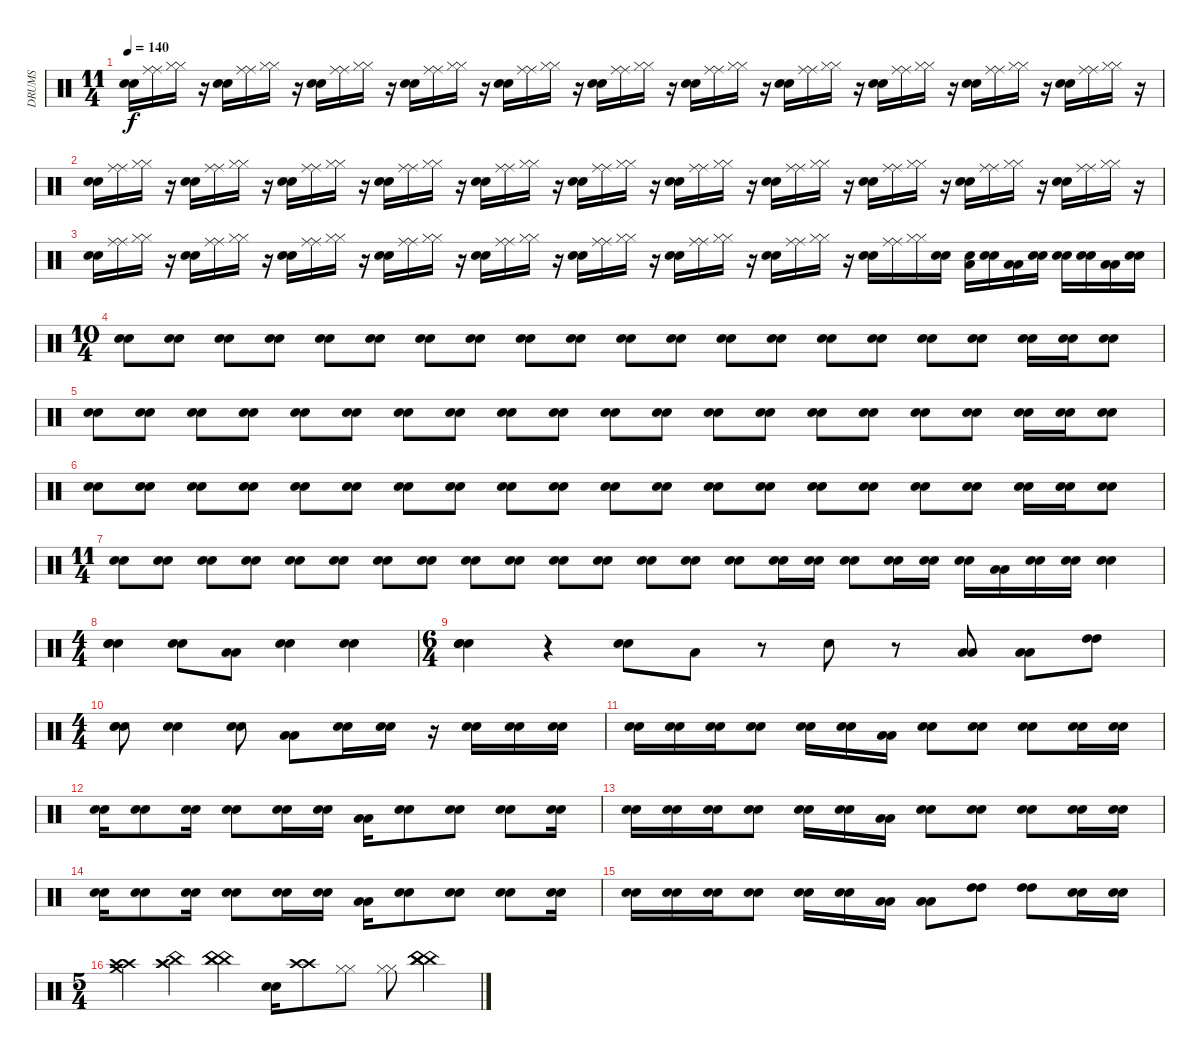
\track ("DRUMS" "DRUMS") {instrument percussion}
\staff {score}
\articulation defaults
\ts (11 4)
\tempo 140
\clef neutral
\ks c
("Electric Snare (hit)" "Electric Snare (hit)").16{dy f} ("Ride (middle)" "Ride (middle)").16 ("Hi-Hat (closed)" "Hi-Hat (closed)").16 r.16 ("Electric Snare (hit)" "Electric Snare (hit)").16 ("Ride (middle)" "Ride (middle)").16 ("Hi-Hat (closed)" "Hi-Hat (closed)").16 r.16 ("Electric Snare (hit)" "Electric Snare (hit)").16 ("Ride (middle)" "Ride (middle)").16 ("Hi-Hat (closed)" "Hi-Hat (closed)").16 r.16 ("Electric Snare (hit)" "Electric Snare (hit)").16 ("Ride (middle)" "Ride (middle)").16 ("Hi-Hat (closed)" "Hi-Hat (closed)").16 r.16 ("Electric Snare (hit)" "Electric Snare (hit)").16 ("Ride (middle)" "Ride (middle)").16 ("Hi-Hat (closed)" "Hi-Hat (closed)").16 r.16 ("Electric Snare (hit)" "Electric Snare (hit)").16 ("Ride (middle)" "Ride (middle)").16 ("Hi-Hat (closed)" "Hi-Hat (closed)").16 r.16 ("Electric Snare (hit)" "Electric Snare (hit)").16 ("Ride (middle)" "Ride (middle)").16 ("Hi-Hat (closed)" "Hi-Hat (closed)").16 r.16 ("Electric Snare (hit)" "Electric Snare (hit)").16 ("Ride (middle)" "Ride (middle)").16 ("Hi-Hat (closed)" "Hi-Hat (closed)").16 r.16 ("Electric Snare (hit)" "Electric Snare (hit)").16 ("Ride (middle)" "Ride (middle)").16 ("Hi-Hat (closed)" "Hi-Hat (closed)").16 r.16 ("Electric Snare (hit)" "Electric Snare (hit)").16 ("Ride (middle)" "Ride (middle)").16 ("Hi-Hat (closed)" "Hi-Hat (closed)").16 r.16 ("Electric Snare (hit)" "Electric Snare (hit)").16 ("Ride (middle)" "Ride (middle)").16 ("Hi-Hat (closed)" "Hi-Hat (closed)").16 r.16 |
("Electric Snare (hit)" "Electric Snare (hit)").16 ("Ride (middle)" "Ride (middle)").16 ("Hi-Hat (closed)" "Hi-Hat (closed)").16 r.16 ("Electric Snare (hit)" "Electric Snare (hit)").16 ("Ride (middle)" "Ride (middle)").16 ("Hi-Hat (closed)" "Hi-Hat (closed)").16 r.16 ("Electric Snare (hit)" "Electric Snare (hit)").16 ("Ride (middle)" "Ride (middle)").16 ("Hi-Hat (closed)" "Hi-Hat (closed)").16 r.16 ("Electric Snare (hit)" "Electric Snare (hit)").16 ("Ride (middle)" "Ride (middle)").16 ("Hi-Hat (closed)" "Hi-Hat (closed)").16 r.16 ("Electric Snare (hit)" "Electric Snare (hit)").16 ("Ride (middle)" "Ride (middle)").16 ("Hi-Hat (closed)" "Hi-Hat (closed)").16 r.16 ("Electric Snare (hit)" "Electric Snare (hit)").16 ("Ride (middle)" "Ride (middle)").16 ("Hi-Hat (closed)" "Hi-Hat (closed)").16 r.16 ("Electric Snare (hit)" "Electric Snare (hit)").16 ("Ride (middle)" "Ride (middle)").16 ("Hi-Hat (closed)" "Hi-Hat (closed)").16 r.16 ("Electric Snare (hit)" "Electric Snare (hit)").16 ("Ride (middle)" "Ride (middle)").16 ("Hi-Hat (closed)" "Hi-Hat (closed)").16 r.16 ("Electric Snare (hit)" "Electric Snare (hit)").16 ("Ride (middle)" "Ride (middle)").16 ("Hi-Hat (closed)" "Hi-Hat (closed)").16 r.16 ("Electric Snare (hit)" "Electric Snare (hit)").16 ("Ride (middle)" "Ride (middle)").16 ("Hi-Hat (closed)" "Hi-Hat (closed)").16 r.16 ("Electric Snare (hit)" "Electric Snare (hit)").16 ("Ride (middle)" "Ride (middle)").16 ("Hi-Hat (closed)" "Hi-Hat (closed)").16 r.16 |
("Electric Snare (hit)" "Electric Snare (hit)").16 ("Ride (middle)" "Ride (middle)").16 ("Hi-Hat (closed)" "Hi-Hat (closed)").16 r.16 ("Electric Snare (hit)" "Electric Snare (hit)").16 ("Ride (middle)" "Ride (middle)").16 ("Hi-Hat (closed)" "Hi-Hat (closed)").16 r.16 ("Electric Snare (hit)" "Electric Snare (hit)").16 ("Ride (middle)" "Ride (middle)").16 ("Hi-Hat (closed)" "Hi-Hat (closed)").16 r.16 ("Electric Snare (hit)" "Electric Snare (hit)").16 ("Ride (middle)" "Ride (middle)").16 ("Hi-Hat (closed)" "Hi-Hat (closed)").16 r.16 ("Electric Snare (hit)" "Electric Snare (hit)").16 ("Ride (middle)" "Ride (middle)").16 ("Hi-Hat (closed)" "Hi-Hat (closed)").16 r.16 ("Electric Snare (hit)" "Electric Snare (hit)").16 ("Ride (middle)" "Ride (middle)").16 ("Hi-Hat (closed)" "Hi-Hat (closed)").16 r.16 ("Electric Snare (hit)" "Electric Snare (hit)").16 ("Ride (middle)" "Ride (middle)").16 ("Hi-Hat (closed)" "Hi-Hat (closed)").16 r.16 ("Electric Snare (hit)" "Electric Snare (hit)").16 ("Ride (middle)" "Ride (middle)").16 ("Hi-Hat (closed)" "Hi-Hat (closed)").16 r.16 ("Electric Snare (hit)" "Electric Snare (hit)").16 ("Ride (middle)" "Ride (middle)").16 ("Hi-Hat (closed)" "Hi-Hat (closed)").16 ("Electric Snare (hit)" "Electric Snare (hit)").16 ("Electric Snare (hit)" "Low Floor Tom (hit)").16 ("Electric Snare (hit)" "Electric Snare (hit)").16 ("Low Tom (hit)" "Low Tom (hit)").16 ("Electric Snare (hit)" "Electric Snare (hit)").16 ("Electric Snare (hit)" "Electric Snare (hit)").16 ("Electric Snare (hit)" "Electric Snare (hit)").16 ("Low Tom (hit)" "Low Tom (hit)").16 ("Electric Snare (hit)" "Electric Snare (hit)").16 |
\ts (10 4)
("Electric Snare (hit)" "Electric Snare (hit)").8 ("Snare (hit) 2" "Snare (hit) 2").8 ("Electric Snare (hit)" "Electric Snare (hit)").8 ("Snare (hit) 2" "Snare (hit) 2").8 ("Electric Snare (hit)" "Electric Snare (hit)").8 ("Snare (hit) 2" "Snare (hit) 2").8 ("Electric Snare (hit)" "Electric Snare (hit)").8 ("Snare (hit) 2" "Snare (hit) 2").8 ("Electric Snare (hit)" "Electric Snare (hit)").8 ("Snare (hit) 2" "Snare (hit) 2").8 ("Electric Snare (hit)" "Electric Snare (hit)").8 ("Snare (hit) 2" "Snare (hit) 2").8 ("Electric Snare (hit)" "Electric Snare (hit)").8 ("Snare (hit) 2" "Snare (hit) 2").8 ("Electric Snare (hit)" "Electric Snare (hit)").8 ("Snare (hit) 2" "Snare (hit) 2").8 ("Electric Snare (hit)" "Electric Snare (hit)").8 ("Snare (hit) 2" "Snare (hit) 2").8 ("Electric Snare (hit)" "Electric Snare (hit)").16 ("Electric Snare (hit)" "Electric Snare (hit)").16 ("Snare (hit) 2" "Snare (hit) 2").8 |
("Electric Snare (hit)" "Electric Snare (hit)").8 ("Snare (hit) 2" "Snare (hit) 2").8 ("Electric Snare (hit)" "Electric Snare (hit)").8 ("Snare (hit) 2" "Snare (hit) 2").8 ("Electric Snare (hit)" "Electric Snare (hit)").8 ("Snare (hit) 2" "Snare (hit) 2").8 ("Electric Snare (hit)" "Electric Snare (hit)").8 ("Snare (hit) 2" "Snare (hit) 2").8 ("Electric Snare (hit)" "Electric Snare (hit)").8 ("Snare (hit) 2" "Snare (hit) 2").8 ("Electric Snare (hit)" "Electric Snare (hit)").8 ("Snare (hit) 2" "Snare (hit) 2").8 ("Electric Snare (hit)" "Electric Snare (hit)").8 ("Snare (hit) 2" "Snare (hit) 2").8 ("Electric Snare (hit)" "Electric Snare (hit)").8 ("Snare (hit) 2" "Snare (hit) 2").8 ("Electric Snare (hit)" "Electric Snare (hit)").8 ("Snare (hit) 2" "Snare (hit) 2").8 ("Electric Snare (hit)" "Electric Snare (hit)").16 ("Electric Snare (hit)" "Electric Snare (hit)").16 ("Snare (hit) 2" "Snare (hit) 2").8 |
("Electric Snare (hit)" "Electric Snare (hit)").8 ("Snare (hit) 2" "Snare (hit) 2").8 ("Electric Snare (hit)" "Electric Snare (hit)").8 ("Snare (hit) 2" "Snare (hit) 2").8 ("Electric Snare (hit)" "Electric Snare (hit)").8 ("Snare (hit) 2" "Snare (hit) 2").8 ("Electric Snare (hit)" "Electric Snare (hit)").8 ("Snare (hit) 2" "Snare (hit) 2").8 ("Electric Snare (hit)" "Electric Snare (hit)").8 ("Snare (hit) 2" "Snare (hit) 2").8 ("Electric Snare (hit)" "Electric Snare (hit)").8 ("Snare (hit) 2" "Snare (hit) 2").8 ("Electric Snare (hit)" "Electric Snare (hit)").8 ("Snare (hit) 2" "Snare (hit) 2").8 ("Electric Snare (hit)" "Electric Snare (hit)").8 ("Snare (hit) 2" "Snare (hit) 2").8 ("Electric Snare (hit)" "Electric Snare (hit)").8 ("Snare (hit) 2" "Snare (hit) 2").8 ("Electric Snare (hit)" "Electric Snare (hit)").16 ("Electric Snare (hit)" "Electric Snare (hit)").16 ("Snare (hit) 2" "Snare (hit) 2").8 |
\ts (11 4)
("Electric Snare (hit)" "Electric Snare (hit)").8 ("Snare (hit) 2" "Snare (hit) 2").8 ("Electric Snare (hit)" "Electric Snare (hit)").8 ("Snare (hit) 2" "Snare (hit) 2").8 ("Electric Snare (hit)" "Electric Snare (hit)").8 ("Snare (hit) 2" "Snare (hit) 2").8 ("Electric Snare (hit)" "Electric Snare (hit)").8 ("Snare (hit) 2" "Snare (hit) 2").8 ("Electric Snare (hit)" "Electric Snare (hit)").8 ("Snare (hit) 2" "Snare (hit) 2").8 ("Electric Snare (hit)" "Electric Snare (hit)").8 ("Snare (hit) 2" "Snare (hit) 2").8 ("Electric Snare (hit)" "Electric Snare (hit)").8 ("Snare (hit) 2" "Snare (hit) 2").8 ("Electric Snare (hit)" "Electric Snare (hit)").8 ("Electric Snare (hit)" "Electric Snare (hit)").16 ("Electric Snare (hit)" "Electric Snare (hit)").16 ("Snare (hit) 2" "Snare (hit) 2").8 ("Electric Snare (hit)" "Electric Snare (hit)").16 ("Electric Snare (hit)" "Electric Snare (hit)").16 ("Electric Snare (hit)" "Electric Snare (hit)").16 ("Low Tom (hit)" "Low Tom (hit)").16 ("Electric Snare (hit)" "Electric Snare (hit)").16 ("Electric Snare (hit)" "Electric Snare (hit)").16 ("Electric Snare (hit)" "Electric Snare (hit)").4 |
\ts (4 4)
("Snare (hit) 2" "Snare (hit) 2" "Hand Clap (hit)").4 ("Electric Snare (hit)" "Electric Snare (hit)").8 ("Low Floor Tom (hit)" "Low Floor Tom (hit)").8 ("Snare (hit) 2" "Snare (hit) 2").4 ("Electric Snare (hit)" "Electric Snare (hit)").4 |
\ts (6 4)
("Snare (hit) 2" "Snare (hit) 2" "Hand Clap (hit)").4 r.4 ("Electric Snare (hit)" "Electric Snare (hit)").8 "Low Floor Tom (hit)".8 r.8 "Snare (hit) 2".8 r.8 ("Low Tom (hit)" "Low Tom (hit)").8 ("Low Tom (hit)" "Low Tom (hit)").8 ("High Tom (hit)" "High Tom (hit)").8 |
\ts (4 4)
("Snare (hit) 2" "Snare (hit) 2" "Hand Clap (hit)").8 ("Electric Snare (hit)" "Electric Snare (hit)").4 ("Electric Snare (hit)" "Electric Snare (hit)").8 ("Low Tom (hit)" "Low Tom (hit)").8 ("Electric Snare (hit)" "Electric Snare (hit)").16 ("Electric Snare (hit)" "Electric Snare (hit)").16 r.16 ("Electric Snare (hit)" "Electric Snare (hit)").16 ("Electric Snare (hit)" "Electric Snare (hit)").16 ("Electric Snare (hit)" "Electric Snare (hit)").16 |
("Electric Snare (hit)" "Electric Snare (hit)").16 ("Electric Snare (hit)" "Electric Snare (hit)").16 ("Electric Snare (hit)" "Electric Snare (hit)").16 ("Electric Snare (hit)" "Electric Snare (hit)").8 ("Electric Snare (hit)" "Electric Snare (hit)").16 ("Electric Snare (hit)" "Electric Snare (hit)").16 ("Low Tom (hit)" "Low Tom (hit)").16 ("Electric Snare (hit)" "Electric Snare (hit)").8 ("Electric Snare (hit)" "Electric Snare (hit)").8 ("Electric Snare (hit)" "Electric Snare (hit)").8 ("Electric Snare (hit)" "Electric Snare (hit)").16 ("Electric Snare (hit)" "Electric Snare (hit)").16 |
("Electric Snare (hit)" "Electric Snare (hit)").16 ("Electric Snare (hit)" "Electric Snare (hit)").8 ("Electric Snare (hit)" "Electric Snare (hit)").16 ("Electric Snare (hit)" "Electric Snare (hit)").8 ("Electric Snare (hit)" "Electric Snare (hit)").16 ("Electric Snare (hit)" "Electric Snare (hit)").16 ("Low Tom (hit)" "Low Tom (hit)").16 ("Electric Snare (hit)" "Electric Snare (hit)").8 ("Electric Snare (hit)" "Electric Snare (hit)").8 ("Electric Snare (hit)" "Electric Snare (hit)").8 ("Electric Snare (hit)" "Electric Snare (hit)").16 |
("Electric Snare (hit)" "Electric Snare (hit)").16 ("Electric Snare (hit)" "Electric Snare (hit)").16 ("Electric Snare (hit)" "Electric Snare (hit)").16 ("Electric Snare (hit)" "Electric Snare (hit)").8 ("Electric Snare (hit)" "Electric Snare (hit)").16 ("Electric Snare (hit)" "Electric Snare (hit)").16 ("Low Tom (hit)" "Low Tom (hit)").16 ("Electric Snare (hit)" "Electric Snare (hit)").8 ("Electric Snare (hit)" "Electric Snare (hit)").8 ("Electric Snare (hit)" "Electric Snare (hit)").8 ("Electric Snare (hit)" "Electric Snare (hit)").16 ("Electric Snare (hit)" "Electric Snare (hit)").16 |
("Electric Snare (hit)" "Electric Snare (hit)").16 ("Electric Snare (hit)" "Electric Snare (hit)").8 ("Electric Snare (hit)" "Electric Snare (hit)").16 ("Electric Snare (hit)" "Electric Snare (hit)").8 ("Electric Snare (hit)" "Electric Snare (hit)").16 ("Electric Snare (hit)" "Electric Snare (hit)").16 ("Low Tom (hit)" "Low Tom (hit)").16 ("Electric Snare (hit)" "Electric Snare (hit)").8 ("Electric Snare (hit)" "Electric Snare (hit)").8 ("Electric Snare (hit)" "Electric Snare (hit)").8 ("Electric Snare (hit)" "Electric Snare (hit)").16 |
("Electric Snare (hit)" "Electric Snare (hit)").16 ("Electric Snare (hit)" "Electric Snare (hit)").16 ("Electric Snare (hit)" "Electric Snare (hit)").16 ("Electric Snare (hit)" "Electric Snare (hit)").8 ("Electric Snare (hit)" "Electric Snare (hit)").16 ("Electric Snare (hit)" "Electric Snare (hit)").16 ("Low Tom (hit)" "Low Tom (hit)").16{volume 16} ("Low Tom (hit)" "Low Tom (hit)").8 ("High Tom (hit)" "High Tom (hit)").8 ("High Tom (hit)" "High Tom (hit)").8 ("Electric Snare (hit)" "Electric Snare (hit)").16 ("Electric Snare (hit)" "Electric Snare (hit)").16 |
\ts (5 4)
("Crash high (hit)" "Crash medium (hit)" "Crash high (hit)").4 ("Crash high (hit)" "China (hit)" "Crash high (hit)").4 ("China (hit)" "China (hit)" "China (hit)").4 ("Electric Snare (hit)" "Electric Snare (hit)").16 ("Crash high (hit)" "Crash high (hit)").8 ("Hi-Hat (closed)" "Hi-Hat (closed)").8 ("Hi-Hat (closed)" "Hi-Hat (closed)").8 ("China (hit)" "China (hit)" "China (hit)" "China (hit)").4
